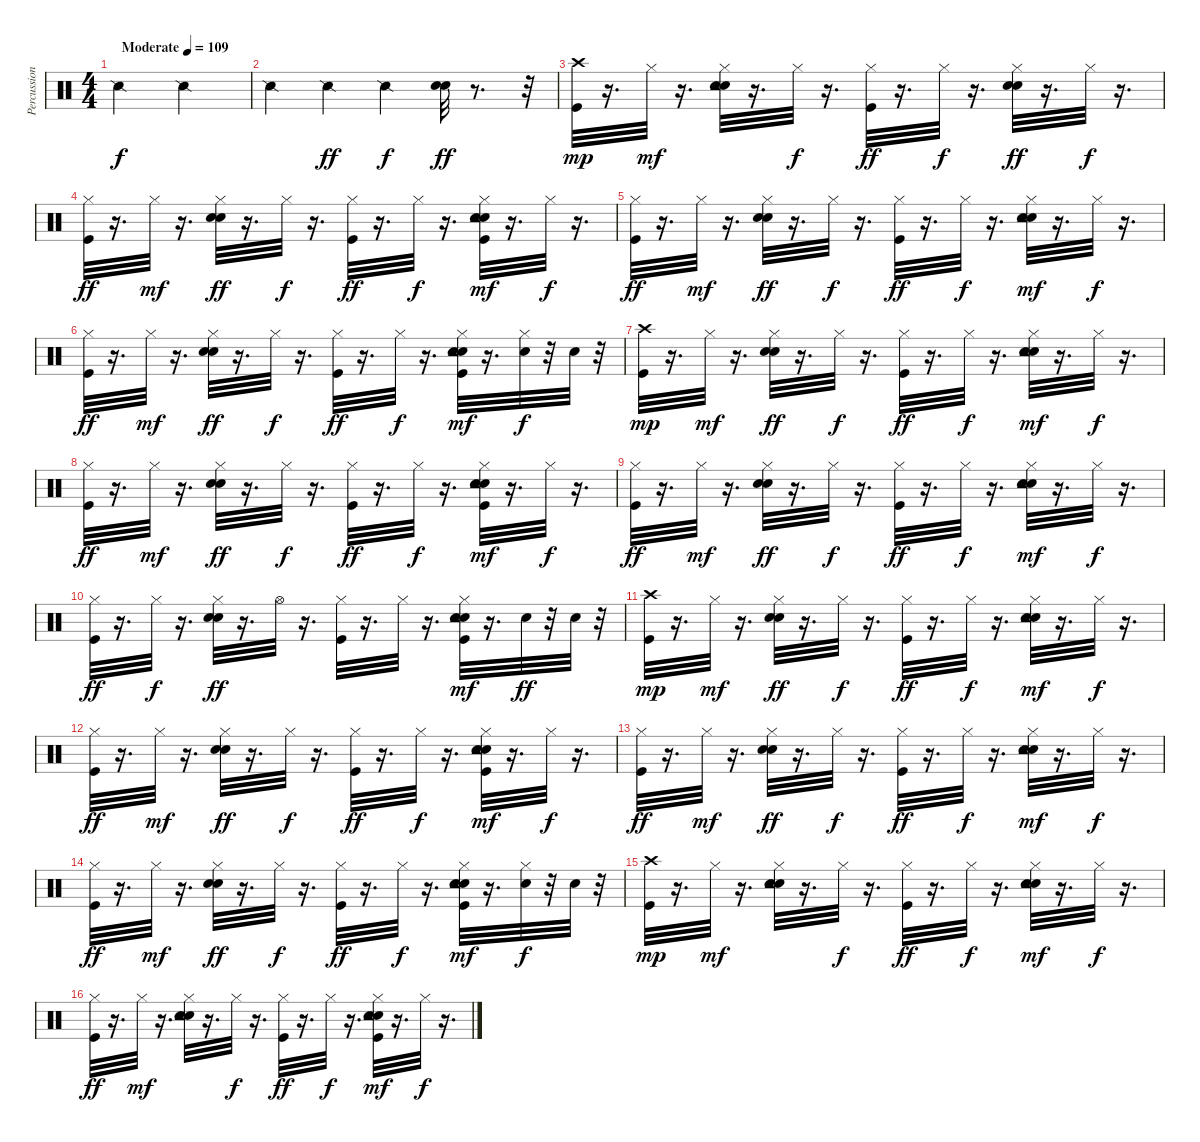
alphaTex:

\track ("Percussion" "Percussion") {instrument percussion}
\staff {score}
\articulation defaults
\ts (4 4)
\tempo (109 "Moderate")
\clef neutral
\ks c "Snare (side stick) 2".2{dy f} "Snare (side stick) 2".2
|
"Snare (side stick) 2".4 "Snare (side stick) 2".4{dy ff} "Snare (side stick) 2".4{dy f} ("Snare (hit) 2" "Snare (hit) 2").32{dy ff balance 8} r.8{d} r.32 |
("Kick (hit)" "Crash high (hit)").32{dy mp} r.16{d} "Hi-Hat (closed)".32{dy mf} r.16{d} ("Snare (hit) 2" "Hand Clap (hit)" "Hi-Hat (closed)" "Tambourine (hit)").32 r.16{d} "Hi-Hat (closed)".32{dy f} r.16{d} ("Kick (hit)" "Hi-Hat (closed)").32{dy ff} r.16{d} "Hi-Hat (closed)".32{dy f} r.16{d} ("Snare (hit) 2" "Hand Clap (hit)" "Hi-Hat (closed)").32{dy ff} r.16{d} "Hi-Hat (closed)".32{dy f} r.16{d} |
("Kick (hit)" "Hi-Hat (closed)").32{dy ff} r.16{d} "Hi-Hat (closed)".32{dy mf} r.16{d} ("Snare (hit) 2" "Hand Clap (hit)" "Hi-Hat (closed)").32{dy ff} r.16{d} "Hi-Hat (closed)".32{dy f} r.16{d} ("Kick (hit)" "Hi-Hat (closed)").32{dy ff} r.16{d} "Hi-Hat (closed)".32{dy f} r.16{d} ("Kick (hit)" "Snare (hit) 2" "Hand Clap (hit)" "Hi-Hat (closed)" "Tambourine (hit)").32{dy mf} r.16{d} "Hi-Hat (closed)".32{dy f} r.16{d} |
("Kick (hit)" "Hi-Hat (closed)").32{dy ff} r.16{d} "Hi-Hat (closed)".32{dy mf} r.16{d} ("Snare (hit) 2" "Hand Clap (hit)" "Hi-Hat (closed)").32{dy ff} r.16{d} "Hi-Hat (closed)".32{dy f} r.16{d} ("Kick (hit)" "Hi-Hat (closed)").32{dy ff} r.16{d} "Hi-Hat (closed)".32{dy f} r.16{d} ("Snare (hit) 2" "Hand Clap (hit)" "Hi-Hat (closed)" "Tambourine (hit)").32{dy mf} r.16{d} "Hi-Hat (closed)".32{dy f} r.16{d} |
("Kick (hit)" "Hi-Hat (closed)").32{dy ff} r.16{d} "Hi-Hat (closed)".32{dy mf} r.16{d} ("Snare (hit) 2" "Hand Clap (hit)" "Hi-Hat (closed)").32{dy ff} r.16{d} "Hi-Hat (closed)".32{dy f} r.16{d} ("Kick (hit)" "Hi-Hat (closed)").32{dy ff} r.16{d} "Hi-Hat (closed)".32{dy f} r.16{d} ("Kick (hit)" "Snare (hit) 2" "Hand Clap (hit)" "Hi-Hat (closed)" "Tambourine (hit)").32{dy mf} r.16{d} ("Snare (hit) 2" "Hi-Hat (closed)").32{dy f} r.32 "Snare (hit) 2".32 r.32 |
("Kick (hit)" "Crash high (hit)").32{dy mp} r.16{d} "Hi-Hat (closed)".32{dy mf} r.16{d} ("Snare (hit) 2" "Hand Clap (hit)" "Hi-Hat (closed)").32{dy ff} r.16{d} "Hi-Hat (closed)".32{dy f} r.16{d} ("Kick (hit)" "Hi-Hat (closed)").32{dy ff} r.16{d} "Hi-Hat (closed)".32{dy f} r.16{d} ("Snare (hit) 2" "Hand Clap (hit)" "Hi-Hat (closed)" "Tambourine (hit)").32{dy mf} r.16{d} "Hi-Hat (closed)".32{dy f} r.16{d} |
("Kick (hit)" "Hi-Hat (closed)").32{dy ff} r.16{d} "Hi-Hat (closed)".32{dy mf} r.16{d} ("Snare (hit) 2" "Hand Clap (hit)" "Hi-Hat (closed)").32{dy ff} r.16{d} "Hi-Hat (closed)".32{dy f} r.16{d} ("Kick (hit)" "Hi-Hat (closed)").32{dy ff} r.16{d} "Hi-Hat (closed)".32{dy f} r.16{d} ("Kick (hit)" "Snare (hit) 2" "Hand Clap (hit)" "Hi-Hat (closed)" "Tambourine (hit)").32{dy mf} r.16{d} "Hi-Hat (closed)".32{dy f} r.16{d} |
("Kick (hit)" "Hi-Hat (closed)").32{dy ff} r.16{d} "Hi-Hat (closed)".32{dy mf} r.16{d} ("Snare (hit) 2" "Hand Clap (hit)" "Hi-Hat (closed)").32{dy ff} r.16{d} "Hi-Hat (closed)".32{dy f} r.16{d} ("Kick (hit)" "Hi-Hat (closed)").32{dy ff} r.16{d} "Hi-Hat (closed)".32{dy f} r.16{d} ("Snare (hit) 2" "Hand Clap (hit)" "Hi-Hat (closed)" "Tambourine (hit)").32{dy mf} r.16{d} "Hi-Hat (closed)".32{dy f} r.16{d} |
("Kick (hit)" "Hi-Hat (closed)").32{dy ff} r.16{d} "Hi-Hat (closed)".32{dy f} r.16{d} ("Snare (hit) 2" "Hand Clap (hit)" "Hi-Hat (closed)").32{dy ff} r.16{d} "Hi-Hat (open)".32 r.16{d} ("Kick (hit)" "Hi-Hat (closed)").32 r.16{d} "Hi-Hat (closed)".32 r.16{d} ("Kick (hit)" "Snare (hit) 2" "Hand Clap (hit)" "Hi-Hat (closed)" "Tambourine (hit)").32{dy mf} r.16{d} "Snare (hit) 2".32{dy ff} r.32 "Snare (hit) 2".32 r.32 |
("Kick (hit)" "Crash high (hit)").32{dy mp} r.16{d} "Hi-Hat (closed)".32{dy mf} r.16{d} ("Snare (hit) 2" "Hand Clap (hit)" "Hi-Hat (closed)").32{dy ff} r.16{d} "Hi-Hat (closed)".32{dy f} r.16{d} ("Kick (hit)" "Hi-Hat (closed)").32{dy ff} r.16{d} "Hi-Hat (closed)".32{dy f} r.16{d} ("Snare (hit) 2" "Hand Clap (hit)" "Hi-Hat (closed)" "Tambourine (hit)").32{dy mf} r.16{d} "Hi-Hat (closed)".32{dy f} r.16{d} |
("Kick (hit)" "Hi-Hat (closed)").32{dy ff} r.16{d} "Hi-Hat (closed)".32{dy mf} r.16{d} ("Snare (hit) 2" "Hand Clap (hit)" "Hi-Hat (closed)").32{dy ff} r.16{d} "Hi-Hat (closed)".32{dy f} r.16{d} ("Kick (hit)" "Hi-Hat (closed)").32{dy ff} r.16{d} "Hi-Hat (closed)".32{dy f} r.16{d} ("Kick (hit)" "Snare (hit) 2" "Hand Clap (hit)" "Hi-Hat (closed)" "Tambourine (hit)").32{dy mf} r.16{d} "Hi-Hat (closed)".32{dy f} r.16{d} |
("Kick (hit)" "Hi-Hat (closed)").32{dy ff} r.16{d} "Hi-Hat (closed)".32{dy mf} r.16{d} ("Snare (hit) 2" "Hand Clap (hit)" "Hi-Hat (closed)").32{dy ff} r.16{d} "Hi-Hat (closed)".32{dy f} r.16{d} ("Kick (hit)" "Hi-Hat (closed)").32{dy ff} r.16{d} "Hi-Hat (closed)".32{dy f} r.16{d} ("Snare (hit) 2" "Hand Clap (hit)" "Hi-Hat (closed)" "Tambourine (hit)").32{dy mf} r.16{d} "Hi-Hat (closed)".32{dy f} r.16{d} |
("Kick (hit)" "Hi-Hat (closed)").32{dy ff} r.16{d} "Hi-Hat (closed)".32{dy mf} r.16{d} ("Snare (hit) 2" "Hand Clap (hit)" "Hi-Hat (closed)").32{dy ff} r.16{d} "Hi-Hat (closed)".32{dy f} r.16{d} ("Kick (hit)" "Hi-Hat (closed)").32{dy ff} r.16{d} "Hi-Hat (closed)".32{dy f} r.16{d} ("Kick (hit)" "Snare (hit) 2" "Hand Clap (hit)" "Hi-Hat (closed)" "Tambourine (hit)").32{dy mf} r.16{d} ("Snare (hit) 2" "Hi-Hat (closed)").32{dy f} r.32 "Snare (hit) 2".32 r.32 |
("Kick (hit)" "Crash high (hit)").32{dy mp} r.16{d} "Hi-Hat (closed)".32{dy mf} r.16{d} ("Snare (hit) 2" "Hand Clap (hit)" "Hi-Hat (closed)" "Tambourine (hit)").32 r.16{d} "Hi-Hat (closed)".32{dy f} r.16{d} ("Kick (hit)" "Hi-Hat (closed)").32{dy ff} r.16{d} "Hi-Hat (closed)".32{dy f} r.16{d} ("Snare (hit) 2" "Hand Clap (hit)" "Hi-Hat (closed)" "Tambourine (hit)").32{dy mf} r.16{d} "Hi-Hat (closed)".32{dy f} r.16{d} |
("Kick (hit)" "Hi-Hat (closed)").32{dy ff} r.16{d} "Hi-Hat (closed)".32{dy mf} r.16{d} ("Snare (hit) 2" "Hand Clap (hit)" "Hi-Hat (closed)" "Tambourine (hit)").32 r.16{d} "Hi-Hat (closed)".32{dy f} r.16{d} ("Kick (hit)" "Hi-Hat (closed)").32{dy ff} r.16{d} "Hi-Hat (closed)".32{dy f} r.16{d} ("Kick (hit)" "Snare (hit) 2" "Hand Clap (hit)" "Hi-Hat (closed)" "Tambourine (hit)").32{dy mf} r.16{d} "Hi-Hat (closed)".32{dy f} r.16{d}
